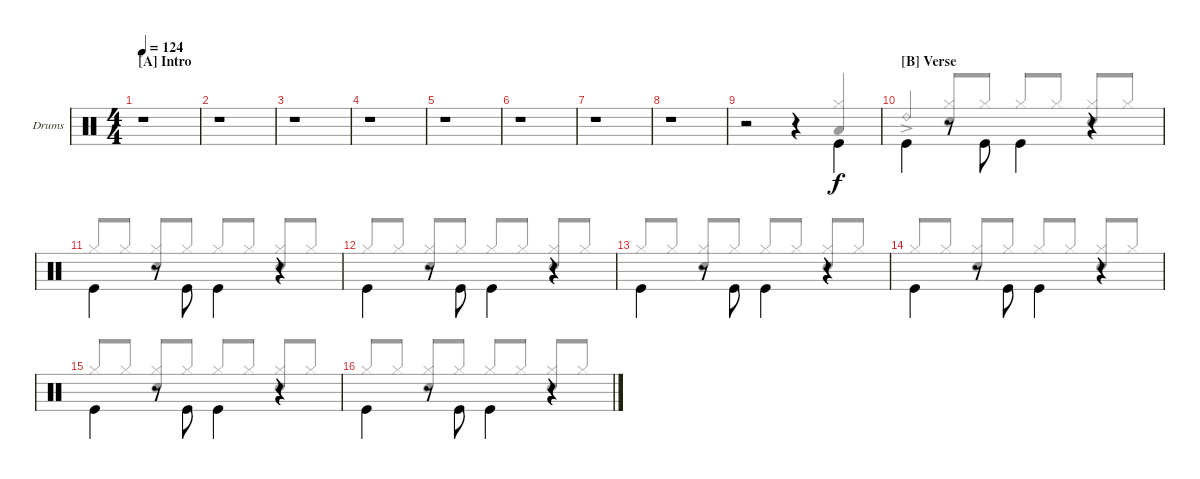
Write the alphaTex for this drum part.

\bracketExtendMode groupsimilarinstruments
\firstSystemTrackNameOrientation horizontal
\otherSystemsTrackNameOrientation horizontal
\track ("Drums" "Drums") {instrument percussion}
\staff {score}
\articulation defaults
\voice
\ts (4 4)
\section ("A" "Intro")
\tempo 124
\clef neutral
\scale
1.05675
\ks c
r.1{dy f} |
\scale
0.943253 r.1 |
\scale
1.02648 r.1 |
\scale
0.973518 r.1 |
\scale
1.02648 r.1 |
\scale
0.973518 r.1 |
\scale
1.02648 r.1 |
\scale
0.973518 r.1 |
\scale
1.02648 r.2 r.4 "Kick (hit)".4{beam invert} |
\section ("B" "Verse")
\scale
0.973518 "Kick (hit)".4{beam invert} r.8 "Kick (hit)".8{beam invert} "Kick (hit)".4{beam invert} r.4 |
\scale
1.02648 "Kick (hit)".4{beam invert} r.8 "Kick (hit)".8{beam invert} "Kick (hit)".4{beam invert} r.4 |
\scale
0.973518 "Kick (hit)".4{beam invert} r.8 "Kick (hit)".8{beam invert} "Kick (hit)".4{beam invert} r.4 |
\scale
1.02648 "Kick (hit)".4{beam invert} r.8 "Kick (hit)".8{beam invert} "Kick (hit)".4{beam invert} r.4 |
\scale
0.973518 "Kick (hit)".4{beam invert} r.8 "Kick (hit)".8{beam invert} "Kick (hit)".4{beam invert} r.4 |
\scale
1.02648 "Kick (hit)".4{beam invert} r.8 "Kick (hit)".8{beam invert} "Kick (hit)".4{beam invert} r.4 |
\scale
0.973518 "Kick (hit)".4{beam invert} r.8 "Kick (hit)".8{beam invert} "Kick (hit)".4{beam invert} r.4
\voice
\clef neutral
\ottava regular
\simile none
\scale
1.05675
\ks c
|
\scale
0.943253 |
\scale
1.02648 |
\scale
0.973518 |
\scale
1.02648 |
\scale
0.973518 |
\scale
1.02648 |
\scale
0.973518 |
\scale
1.02648 r.2 r.4 ("Low Tom (hit)" "Hi-Hat (closed)").4{beam invert} |
\scale
0.973518 "Ride (bell) 2"{ac}.4{beam invert} ("Hi-Hat (closed)" "Snare (hit) 2").8{beam invert} "Hi-Hat (closed)".8 "Hi-Hat (closed)".8{beam invert} "Hi-Hat (closed)".8 ("Hi-Hat (closed)" "Snare (hit) 2").8{beam invert} "Hi-Hat (closed)".8 |
\scale
1.02648 "Hi-Hat (closed)".8{beam invert} "Hi-Hat (closed)".8 ("Hi-Hat (closed)" "Snare (hit) 2").8{beam invert} "Hi-Hat (closed)".8 "Hi-Hat (closed)".8{beam invert} "Hi-Hat (closed)".8 ("Hi-Hat (closed)" "Snare (hit) 2").8{beam invert} "Hi-Hat (closed)".8 |
\scale
0.973518 "Hi-Hat (closed)".8{beam invert} "Hi-Hat (closed)".8 ("Hi-Hat (closed)" "Snare (hit) 2").8{beam invert} "Hi-Hat (closed)".8 "Hi-Hat (closed)".8{beam invert} "Hi-Hat (closed)".8 ("Hi-Hat (closed)" "Snare (hit) 2").8{beam invert} "Hi-Hat (closed)".8 |
\scale
1.02648 "Hi-Hat (closed)".8{beam invert} "Hi-Hat (closed)".8 ("Hi-Hat (closed)" "Snare (hit) 2").8{beam invert} "Hi-Hat (closed)".8 "Hi-Hat (closed)".8{beam invert} "Hi-Hat (closed)".8 ("Hi-Hat (closed)" "Snare (hit) 2").8{beam invert} "Hi-Hat (closed)".8 |
\scale
0.973518 "Hi-Hat (closed)".8{beam invert} "Hi-Hat (closed)".8 ("Hi-Hat (closed)" "Snare (hit) 2").8{beam invert} "Hi-Hat (closed)".8 "Hi-Hat (closed)".8{beam invert} "Hi-Hat (closed)".8 ("Hi-Hat (closed)" "Snare (hit) 2").8{beam invert} "Hi-Hat (closed)".8 |
\scale
1.02648 "Hi-Hat (closed)".8{beam invert} "Hi-Hat (closed)".8 ("Hi-Hat (closed)" "Snare (hit) 2").8{beam invert} "Hi-Hat (closed)".8 "Hi-Hat (closed)".8{beam invert} "Hi-Hat (closed)".8 ("Hi-Hat (closed)" "Snare (hit) 2").8{beam invert} "Hi-Hat (closed)".8 |
\scale
0.973518 "Hi-Hat (closed)".8{beam invert} "Hi-Hat (closed)".8 ("Hi-Hat (closed)" "Snare (hit) 2").8{beam invert} "Hi-Hat (closed)".8 "Hi-Hat (closed)".8{beam invert} "Hi-Hat (closed)".8 ("Hi-Hat (closed)" "Snare (hit) 2").8{beam invert} "Hi-Hat (closed)".8
